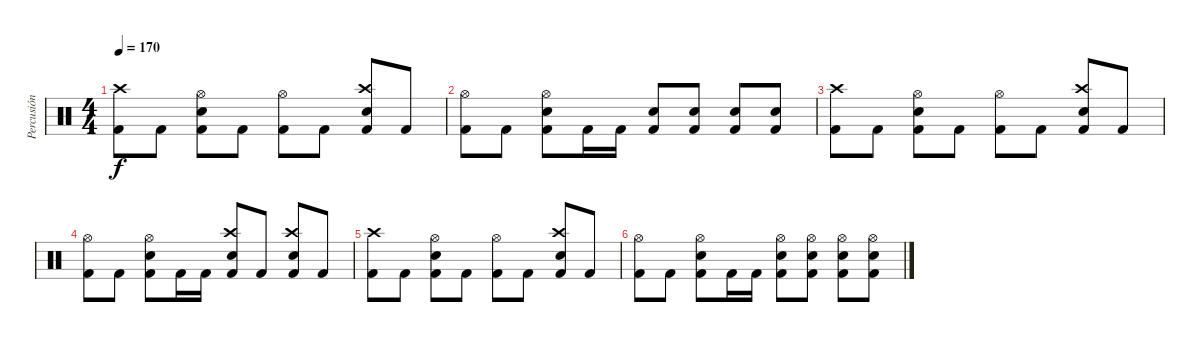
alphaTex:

\track ("Percusión" "Percusión") {instrument percussion}
\staff {score}
\articulation defaults
\ts (4 4)
\tempo 170
\clef neutral
\ks c
("Kick (hit) 2" "Crash high (hit)").8{dy f} "Kick (hit) 2".8 ("Kick (hit) 2" "Snare (hit) 2" "Hi-Hat (open)").8 "Kick (hit) 2".8 ("Kick (hit) 2" "Hi-Hat (open)").8 "Kick (hit) 2".8 ("Kick (hit) 2" "Snare (hit) 2" "Crash high (hit)").8 "Kick (hit) 2".8 |
("Kick (hit) 2" "Hi-Hat (open)").8 "Kick (hit) 2".8 ("Kick (hit) 2" "Snare (hit) 2" "Hi-Hat (open)").8 "Kick (hit) 2".16 "Kick (hit) 2".16 ("Kick (hit) 2" "Snare (hit) 2").8 ("Kick (hit) 2" "Snare (hit) 2").8 ("Kick (hit) 2" "Snare (hit) 2").8 ("Kick (hit) 2" "Snare (hit) 2").8 |
("Kick (hit) 2" "Crash high (hit)").8 "Kick (hit) 2".8 ("Kick (hit) 2" "Snare (hit) 2" "Hi-Hat (open)").8 "Kick (hit) 2".8 ("Kick (hit) 2" "Hi-Hat (open)").8 "Kick (hit) 2".8 ("Kick (hit) 2" "Snare (hit) 2" "Crash high (hit)").8 "Kick (hit) 2".8 |
("Kick (hit) 2" "Hi-Hat (open)").8 "Kick (hit) 2".8 ("Kick (hit) 2" "Snare (hit) 2" "Hi-Hat (open)").8 "Kick (hit) 2".16 "Kick (hit) 2".16 ("Kick (hit) 2" "Snare (hit) 2" "Crash high (hit)").8 "Kick (hit) 2".8 ("Kick (hit) 2" "Snare (hit) 2" "Crash high (hit)").8 "Kick (hit) 2".8 |
("Kick (hit) 2" "Crash high (hit)").8 "Kick (hit) 2".8 ("Kick (hit) 2" "Snare (hit) 2" "Hi-Hat (open)").8 "Kick (hit) 2".8 ("Kick (hit) 2" "Hi-Hat (open)").8 "Kick (hit) 2".8 ("Kick (hit) 2" "Snare (hit) 2" "Crash high (hit)").8 "Kick (hit) 2".8 |
("Kick (hit) 2" "Hi-Hat (open)").8 "Kick (hit) 2".8 ("Kick (hit) 2" "Snare (hit) 2" "Hi-Hat (open)").8 "Kick (hit) 2".16 "Kick (hit) 2".16 ("Kick (hit) 2" "Snare (hit) 2" "Hi-Hat (open)").8 ("Kick (hit) 2" "Snare (hit) 2" "Hi-Hat (open)").8 ("Kick (hit) 2" "Snare (hit) 2" "Hi-Hat (open)").8 ("Kick (hit) 2" "Snare (hit) 2" "Hi-Hat (open)").8
